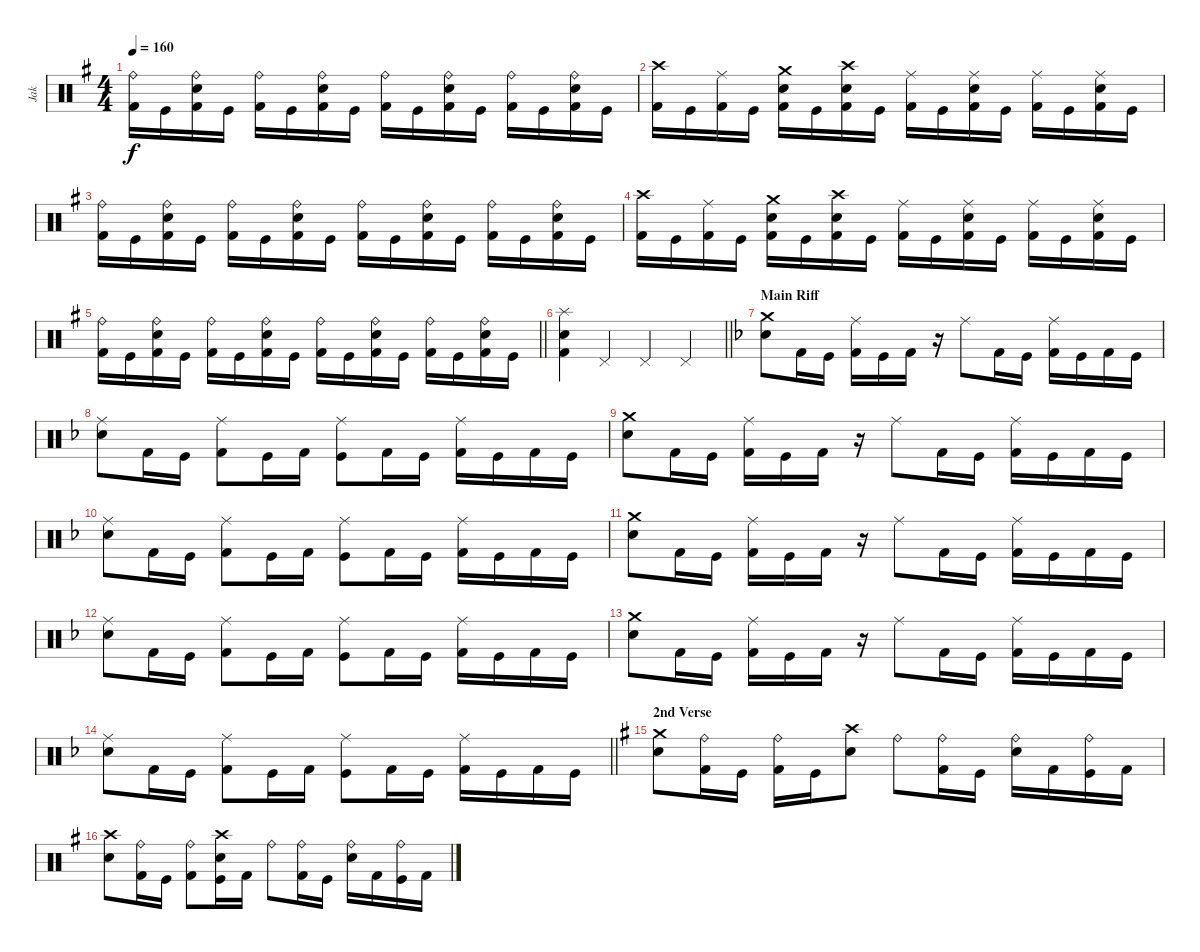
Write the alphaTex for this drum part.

\track ("Jak" "Jak") {instrument percussion}
\staff {score}
\articulation defaults
\ts (4 4)
\tempo 160
\clef neutral
\ks eminor
("Ride (bell)" "Kick (hit) 2").16{dy f} "Kick (hit)".16 ("Ride (bell)" "Snare (hit) 2" "Kick (hit) 2").16 "Kick (hit)".16 ("Ride (bell)" "Kick (hit) 2").16 "Kick (hit)".16 ("Ride (bell)" "Snare (hit) 2" "Kick (hit) 2").16 "Kick (hit)".16 ("Ride (bell)" "Kick (hit) 2").16 "Kick (hit)".16 ("Ride (bell)" "Snare (hit) 2" "Kick (hit) 2").16 "Kick (hit)".16 ("Ride (bell)" "Kick (hit) 2").16 "Kick (hit)".16 ("Ride (bell)" "Snare (hit) 2" "Kick (hit) 2").16 "Kick (hit)".16 |
("Crash high (hit)" "Kick (hit) 2").16 "Kick (hit)".16 ("Ride (middle)" "Kick (hit) 2").16 "Kick (hit)".16 ("Crash medium (hit)" "Snare (hit) 2" "Kick (hit) 2").16 "Kick (hit)".16 ("Crash high (hit)" "Snare (hit) 2" "Kick (hit) 2").16 "Kick (hit)".16 ("Ride (middle)" "Kick (hit) 2").16 "Kick (hit)".16 ("Ride (middle)" "Snare (hit) 2" "Kick (hit) 2").16 "Kick (hit)".16 ("Ride (middle)" "Kick (hit) 2").16 "Kick (hit)".16 ("Ride (middle)" "Snare (hit) 2" "Kick (hit) 2").16 "Kick (hit)".16 |
("Ride (bell)" "Kick (hit) 2").16 "Kick (hit)".16 ("Ride (bell)" "Snare (hit) 2" "Kick (hit) 2").16 "Kick (hit)".16 ("Ride (bell)" "Kick (hit) 2").16 "Kick (hit)".16 ("Ride (bell)" "Snare (hit) 2" "Kick (hit) 2").16 "Kick (hit)".16 ("Ride (bell)" "Kick (hit) 2").16 "Kick (hit)".16 ("Ride (bell)" "Snare (hit) 2" "Kick (hit) 2").16 "Kick (hit)".16 ("Ride (bell)" "Kick (hit) 2").16 "Kick (hit)".16 ("Ride (bell)" "Snare (hit) 2" "Kick (hit) 2").16 "Kick (hit)".16 |
("Crash high (hit)" "Kick (hit) 2").16 "Kick (hit)".16 ("Ride (middle)" "Kick (hit) 2").16 "Kick (hit)".16 ("Crash medium (hit)" "Snare (hit) 2" "Kick (hit) 2").16 "Kick (hit)".16 ("Crash high (hit)" "Snare (hit) 2" "Kick (hit) 2").16 "Kick (hit)".16 ("Ride (middle)" "Kick (hit) 2").16 "Kick (hit)".16 ("Ride (middle)" "Snare (hit) 2" "Kick (hit) 2").16 "Kick (hit)".16 ("Ride (middle)" "Kick (hit) 2").16 "Kick (hit)".16 ("Ride (middle)" "Snare (hit) 2" "Kick (hit) 2").16 "Kick (hit)".16 |
\barLineRight lightlight
("Ride (bell)" "Kick (hit) 2").16 "Kick (hit)".16 ("Ride (bell)" "Snare (hit) 2" "Kick (hit) 2").16 "Kick (hit)".16 ("Ride (bell)" "Kick (hit) 2").16 "Kick (hit)".16 ("Ride (bell)" "Snare (hit) 2" "Kick (hit) 2").16 "Kick (hit)".16 ("Ride (bell)" "Kick (hit) 2").16 "Kick (hit)".16 ("Ride (bell)" "Snare (hit) 2" "Kick (hit) 2").16 "Kick (hit)".16 ("Ride (bell)" "Kick (hit) 2").16 "Kick (hit)".16 ("Ride (bell)" "Snare (hit) 2" "Kick (hit) 2").16 "Kick (hit)".16 |
\barLineRight lightlight
("Splash (hit)" "Snare (hit) 2" "Kick (hit) 2").4 "Pedal Hi-Hat (hit)".4 "Pedal Hi-Hat (hit)".4 "Pedal Hi-Hat (hit)".4 |
\section ("" "Main Riff")
\ks dminor
("Crash medium (hit)" "Snare (hit) 2").8 "Kick (hit) 2".16 "Kick (hit)".16 ("Ride (middle)" "Kick (hit) 2").16 "Kick (hit)".16 "Kick (hit) 2".16 r.16 "Ride (middle)".8 "Kick (hit) 2".16 "Kick (hit)".16 ("Ride (middle)" "Kick (hit) 2").16 "Kick (hit)".16 "Kick (hit) 2".16 "Kick (hit)".16 |
("Ride (middle)" "Snare (hit) 2").8 "Kick (hit) 2".16 "Kick (hit)".16 ("Ride (middle)" "Kick (hit) 2").8 "Kick (hit)".16 "Kick (hit) 2".16 ("Ride (middle)" "Kick (hit)").8 "Kick (hit) 2".16 "Kick (hit)".16 ("Ride (middle)" "Kick (hit) 2").16 "Kick (hit)".16 "Kick (hit) 2".16 "Kick (hit)".16 |
("Crash medium (hit)" "Snare (hit) 2").8 "Kick (hit) 2".16 "Kick (hit)".16 ("Ride (middle)" "Kick (hit) 2").16 "Kick (hit)".16 "Kick (hit) 2".16 r.16 "Ride (middle)".8 "Kick (hit) 2".16 "Kick (hit)".16 ("Ride (middle)" "Kick (hit) 2").16 "Kick (hit)".16 "Kick (hit) 2".16 "Kick (hit)".16 |
("Ride (middle)" "Snare (hit) 2").8 "Kick (hit) 2".16 "Kick (hit)".16 ("Ride (middle)" "Kick (hit) 2").8 "Kick (hit)".16 "Kick (hit) 2".16 ("Ride (middle)" "Kick (hit)").8 "Kick (hit) 2".16 "Kick (hit)".16 ("Ride (middle)" "Kick (hit) 2").16 "Kick (hit)".16 "Kick (hit) 2".16 "Kick (hit)".16 |
("Crash medium (hit)" "Snare (hit) 2").8 "Kick (hit) 2".16 "Kick (hit)".16 ("Ride (middle)" "Kick (hit) 2").16 "Kick (hit)".16 "Kick (hit) 2".16 r.16 "Ride (middle)".8 "Kick (hit) 2".16 "Kick (hit)".16 ("Ride (middle)" "Kick (hit) 2").16 "Kick (hit)".16 "Kick (hit) 2".16 "Kick (hit)".16 |
("Ride (middle)" "Snare (hit) 2").8 "Kick (hit) 2".16 "Kick (hit)".16 ("Ride (middle)" "Kick (hit) 2").8 "Kick (hit)".16 "Kick (hit) 2".16 ("Ride (middle)" "Kick (hit)").8 "Kick (hit) 2".16 "Kick (hit)".16 ("Ride (middle)" "Kick (hit) 2").16 "Kick (hit)".16 "Kick (hit) 2".16 "Kick (hit)".16 |
("Crash medium (hit)" "Snare (hit) 2").8 "Kick (hit) 2".16 "Kick (hit)".16 ("Ride (middle)" "Kick (hit) 2").16 "Kick (hit)".16 "Kick (hit) 2".16 r.16 "Ride (middle)".8 "Kick (hit) 2".16 "Kick (hit)".16 ("Ride (middle)" "Kick (hit) 2").16 "Kick (hit)".16 "Kick (hit) 2".16 "Kick (hit)".16 |
\barLineRight lightlight
("Ride (middle)" "Snare (hit) 2").8 "Kick (hit) 2".16 "Kick (hit)".16 ("Ride (middle)" "Kick (hit) 2").8 "Kick (hit)".16 "Kick (hit) 2".16 ("Ride (middle)" "Kick (hit)").8 "Kick (hit) 2".16 "Kick (hit)".16 ("Ride (middle)" "Kick (hit) 2").16 "Kick (hit)".16 "Kick (hit) 2".16 "Kick (hit)".16 |
\section ("" "2nd Verse")
\ks eminor
("Crash medium (hit)" "Snare (hit) 2").8 ("Ride (bell)" "Kick (hit) 2").16 "Kick (hit)".16 ("Ride (bell)" "Kick (hit) 2").16 "Kick (hit)".16 ("Crash high (hit)" "Snare (hit) 2").8 "Ride (bell)".8 ("Ride (bell)" "Kick (hit) 2").16 "Kick (hit)".16 ("Ride (bell)" "Snare (hit) 2").16 "Kick (hit) 2".16 ("Ride (bell)" "Kick (hit)").16 "Kick (hit) 2".16 |
("Crash high (hit)" "Snare (hit) 2").8 ("Ride (bell)" "Kick (hit) 2").16 "Kick (hit)".16 ("Ride (bell)" "Kick (hit) 2").8 ("Crash high (hit)" "Snare (hit) 2" "Kick (hit)").16 "Kick (hit) 2".16 "Ride (bell)".8 ("Ride (bell)" "Kick (hit) 2").16 "Kick (hit)".16 ("Ride (bell)" "Snare (hit) 2").16 "Kick (hit) 2".16 ("Ride (bell)" "Kick (hit)").16 "Kick (hit) 2".16
